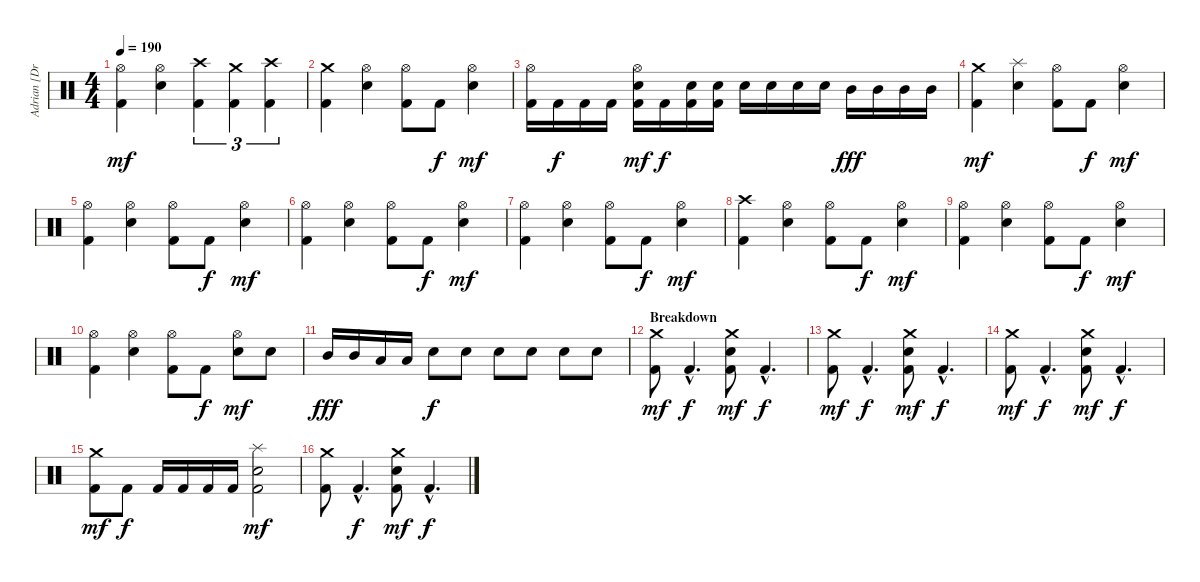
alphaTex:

\track ("Adrian [Drums]" "Adrian [Dr") {instrument percussion}
\staff {score}
\articulation defaults
\ts (4 4)
\tempo 190
\clef neutral
\ks c
("Hi-Hat (open)" "Kick (hit) 2").4{dy mf} ("Hi-Hat (open)" "Electric Snare (hit)").4 ("Crash high (hit)" "Kick (hit) 2").4{tu (3 2)} ("Crash medium (hit)" "Kick (hit) 2").4{tu (3 2)} ("Crash high (hit)" "Kick (hit) 2").4{tu (3 2)} |
("Crash medium (hit)" "Kick (hit) 2").4 ("Hi-Hat (open)" "Electric Snare (hit)").4 ("Hi-Hat (open)" "Kick (hit) 2").8 "Kick (hit) 2".8{dy f} ("Hi-Hat (open)" "Electric Snare (hit)").4{dy mf} |
("Hi-Hat (open)" "Kick (hit) 2").16 "Kick (hit) 2".16{dy f} "Kick (hit) 2".16 "Kick (hit) 2".16 ("Hi-Hat (open)" "Electric Snare (hit)" "Kick (hit) 2").16{dy mf} "Kick (hit) 2".16{dy f} ("Electric Snare (hit)" "Kick (hit) 2").16 ("Electric Snare (hit)" "Kick (hit) 2").16 "Electric Snare (hit)".16 "Electric Snare (hit)".16 "Electric Snare (hit)".16 "Electric Snare (hit)".16 "Mid Tom (hit)".16{dy fff} "Mid Tom (hit)".16 "Mid Tom (hit)".16 "Mid Tom (hit)".16 |
("Crash medium (hit)" "Kick (hit) 2").4{dy mf} ("Splash (hit)" "Electric Snare (hit)").4 ("Hi-Hat (open)" "Kick (hit) 2").8 "Kick (hit) 2".8{dy f} ("Hi-Hat (open)" "Electric Snare (hit)").4{dy mf} |
("Hi-Hat (open)" "Kick (hit) 2").4 ("Hi-Hat (open)" "Electric Snare (hit)").4 ("Hi-Hat (open)" "Kick (hit) 2").8 "Kick (hit) 2".8{dy f} ("Hi-Hat (open)" "Electric Snare (hit)").4{dy mf} |
("Hi-Hat (open)" "Kick (hit) 2").4 ("Hi-Hat (open)" "Electric Snare (hit)").4 ("Hi-Hat (open)" "Kick (hit) 2").8 "Kick (hit) 2".8{dy f} ("Hi-Hat (open)" "Electric Snare (hit)").4{dy mf} |
("Hi-Hat (open)" "Kick (hit) 2").4 ("Hi-Hat (open)" "Electric Snare (hit)").4 ("Hi-Hat (open)" "Kick (hit) 2").8 "Kick (hit) 2".8{dy f} ("Hi-Hat (open)" "Electric Snare (hit)").4{dy mf} |
("Crash high (hit)" "Kick (hit) 2").4 ("Hi-Hat (open)" "Electric Snare (hit)").4 ("Hi-Hat (open)" "Kick (hit) 2").8 "Kick (hit) 2".8{dy f} ("Hi-Hat (open)" "Electric Snare (hit)").4{dy mf} |
("Hi-Hat (open)" "Kick (hit) 2").4 ("Hi-Hat (open)" "Electric Snare (hit)").4 ("Hi-Hat (open)" "Kick (hit) 2").8 "Kick (hit) 2".8{dy f} ("Hi-Hat (open)" "Electric Snare (hit)").4{dy mf} |
("Hi-Hat (open)" "Kick (hit) 2").4 ("Hi-Hat (open)" "Electric Snare (hit)").4 ("Hi-Hat (open)" "Kick (hit) 2").8 "Kick (hit) 2".8{dy f} ("Hi-Hat (open)" "Electric Snare (hit)").8{dy mf} "Electric Snare (hit)".8 |
"Mid Tom (hit)".16{dy fff} "Mid Tom (hit)".16 "Low Tom (hit)".16 "Low Tom (hit)".16 "Electric Snare (hit)".8{dy f} "Electric Snare (hit)".8 "Electric Snare (hit)".8 "Electric Snare (hit)".8 "Electric Snare (hit)".8 "Electric Snare (hit)".8 |
\section ("" "Breakdown")
("Crash medium (hit)" "Kick (hit) 2").8{dy mf} "Kick (hit) 2"{hac}.4{d dy f} ("Crash medium (hit)" "Electric Snare (hit)" "Kick (hit) 2").8{dy mf} "Kick (hit) 2"{hac}.4{d dy f} |
("Crash medium (hit)" "Kick (hit) 2").8{dy mf} "Kick (hit) 2"{hac}.4{d dy f} ("Crash medium (hit)" "Electric Snare (hit)" "Kick (hit) 2").8{dy mf} "Kick (hit) 2"{hac}.4{d dy f} |
("Crash medium (hit)" "Kick (hit) 2").8{dy mf} "Kick (hit) 2"{hac}.4{d dy f} ("Crash medium (hit)" "Electric Snare (hit)" "Kick (hit) 2").8{dy mf} "Kick (hit) 2"{hac}.4{d dy f} |
("Crash medium (hit)" "Kick (hit) 2").8{dy mf} "Kick (hit) 2".8{dy f} "Kick (hit) 2".16 "Kick (hit) 2".16 "Kick (hit) 2".16 "Kick (hit) 2".16 ("Splash (hit)" "Electric Snare (hit)" "Kick (hit) 2").2{dy mf} |
("Crash medium (hit)" "Kick (hit) 2").8 "Kick (hit) 2"{hac}.4{d dy f} ("Crash medium (hit)" "Electric Snare (hit)" "Kick (hit) 2").8{dy mf} "Kick (hit) 2"{hac}.4{d dy f}
